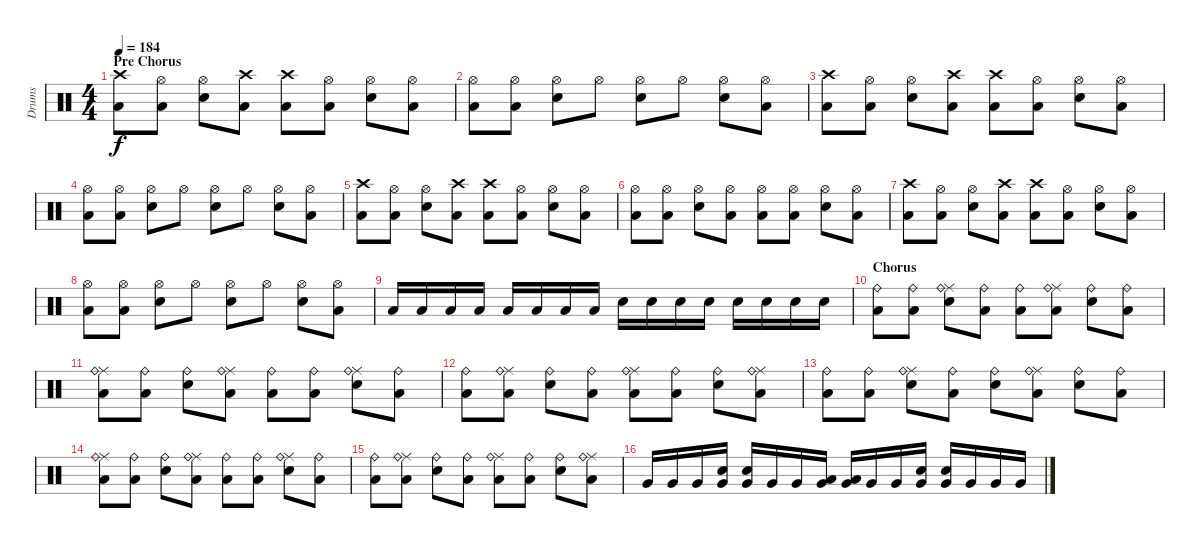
\track ("Drums" "Drums") {instrument percussion}
\staff {score}
\articulation defaults
\ts (4 4)
\section ("" "Pre Chorus")
\tempo 184
\clef neutral
\ks c
("Crash high (hit)" "Low Tom (hit)").8{dy f} ("Hi-Hat (open)" "Low Tom (hit)").8 ("Hi-Hat (open)" "Electric Snare (hit)").8 ("Crash high (hit)" "Low Tom (hit)").8 ("Crash high (hit)" "Low Tom (hit)").8 ("Hi-Hat (open)" "Low Tom (hit)").8 ("Hi-Hat (open)" "Electric Snare (hit)").8 ("Hi-Hat (open)" "Low Tom (hit)").8 |
("Hi-Hat (open)" "Low Tom (hit)").8 ("Hi-Hat (open)" "Low Tom (hit)").8 ("Hi-Hat (open)" "Electric Snare (hit)").8 "Hi-Hat (open)".8 ("Hi-Hat (open)" "Electric Snare (hit)").8 "Hi-Hat (open)".8 ("Hi-Hat (open)" "Electric Snare (hit)").8 ("Hi-Hat (open)" "Low Tom (hit)").8 |
("Crash high (hit)" "Low Tom (hit)").8 ("Hi-Hat (open)" "Low Tom (hit)").8 ("Hi-Hat (open)" "Electric Snare (hit)").8 ("Crash high (hit)" "Low Tom (hit)").8 ("Crash high (hit)" "Low Tom (hit)").8 ("Hi-Hat (open)" "Low Tom (hit)").8 ("Hi-Hat (open)" "Electric Snare (hit)").8 ("Hi-Hat (open)" "Low Tom (hit)").8 |
("Hi-Hat (open)" "Low Tom (hit)").8 ("Hi-Hat (open)" "Low Tom (hit)").8 ("Hi-Hat (open)" "Electric Snare (hit)").8 "Hi-Hat (open)".8 ("Hi-Hat (open)" "Electric Snare (hit)").8 "Hi-Hat (open)".8 ("Hi-Hat (open)" "Electric Snare (hit)").8 ("Hi-Hat (open)" "Low Tom (hit)").8 |
("Crash high (hit)" "Low Tom (hit)").8 ("Hi-Hat (open)" "Low Tom (hit)").8 ("Hi-Hat (open)" "Electric Snare (hit)").8 ("Crash high (hit)" "Low Tom (hit)").8 ("Crash high (hit)" "Low Tom (hit)").8 ("Hi-Hat (open)" "Low Tom (hit)").8 ("Hi-Hat (open)" "Electric Snare (hit)").8 ("Hi-Hat (open)" "Low Tom (hit)").8 |
("Hi-Hat (open)" "Low Tom (hit)").8 ("Hi-Hat (open)" "Low Tom (hit)").8 ("Hi-Hat (open)" "Electric Snare (hit)").8 ("Hi-Hat (open)" "Low Tom (hit)").8 ("Hi-Hat (open)" "Low Tom (hit)").8 ("Hi-Hat (open)" "Low Tom (hit)").8 ("Hi-Hat (open)" "Electric Snare (hit)").8 ("Hi-Hat (open)" "Low Tom (hit)").8 |
("Crash high (hit)" "Low Tom (hit)").8 ("Hi-Hat (open)" "Low Tom (hit)").8 ("Hi-Hat (open)" "Electric Snare (hit)").8 ("Crash high (hit)" "Low Tom (hit)").8 ("Crash high (hit)" "Low Tom (hit)").8 ("Hi-Hat (open)" "Low Tom (hit)").8 ("Hi-Hat (open)" "Electric Snare (hit)").8 ("Hi-Hat (open)" "Low Tom (hit)").8 |
("Hi-Hat (open)" "Low Tom (hit)").8 ("Hi-Hat (open)" "Low Tom (hit)").8 ("Hi-Hat (open)" "Electric Snare (hit)").8 "Hi-Hat (open)".8 ("Hi-Hat (open)" "Electric Snare (hit)").8 "Hi-Hat (open)".8 ("Hi-Hat (open)" "Electric Snare (hit)").8 ("Hi-Hat (open)" "Low Tom (hit)").8 |
"Low Tom (hit)".16 "Low Tom (hit)".16 "Low Tom (hit)".16 "Low Tom (hit)".16 "Low Tom (hit)".16 "Low Tom (hit)".16 "Low Tom (hit)".16 "Low Tom (hit)".16 "Electric Snare (hit)".16 "Electric Snare (hit)".16 "Electric Snare (hit)".16 "Electric Snare (hit)".16 "Electric Snare (hit)".16 "Electric Snare (hit)".16 "Electric Snare (hit)".16 "Electric Snare (hit)".16 |
\section ("" "Chorus")
("Ride (bell)" "Low Tom (hit)").8 ("Ride (bell)" "Low Tom (hit)").8 ("Ride (middle)" "Ride (bell)" "Electric Snare (hit)").8 ("Ride (bell)" "Low Tom (hit)").8 ("Ride (bell)" "Low Tom (hit)").8 ("Ride (middle)" "Ride (bell)" "Low Tom (hit)").8 ("Ride (bell)" "Electric Snare (hit)").8 ("Ride (bell)" "Low Tom (hit)").8 |
("Ride (middle)" "Ride (bell)" "Low Tom (hit)").8 ("Ride (bell)" "Low Tom (hit)").8 ("Ride (bell)" "Electric Snare (hit)").8 ("Ride (middle)" "Ride (bell)" "Low Tom (hit)").8 ("Ride (bell)" "Low Tom (hit)").8 ("Ride (bell)" "Low Tom (hit)").8 ("Ride (middle)" "Ride (bell)" "Electric Snare (hit)").8 ("Ride (bell)" "Low Tom (hit)").8 |
("Ride (bell)" "Low Tom (hit)").8 ("Ride (middle)" "Ride (bell)" "Low Tom (hit)").8 ("Ride (bell)" "Electric Snare (hit)").8 ("Ride (bell)" "Low Tom (hit)").8 ("Ride (middle)" "Ride (bell)" "Low Tom (hit)").8 ("Ride (bell)" "Low Tom (hit)").8 ("Ride (bell)" "Electric Snare (hit)").8 ("Ride (middle)" "Ride (bell)" "Low Tom (hit)").8 |
("Ride (bell)" "Low Tom (hit)").8 ("Ride (bell)" "Low Tom (hit)").8 ("Ride (middle)" "Ride (bell)" "Electric Snare (hit)").8 ("Ride (bell)" "Low Tom (hit)").8 ("Ride (bell)" "Electric Snare (hit)").8 ("Ride (middle)" "Ride (bell)" "Low Tom (hit)").8 ("Ride (bell)" "Electric Snare (hit)").8 ("Ride (bell)" "Low Tom (hit)").8 |
("Ride (middle)" "Ride (bell)" "Low Tom (hit)").8 ("Ride (bell)" "Low Tom (hit)").8 ("Ride (bell)" "Electric Snare (hit)").8 ("Ride (middle)" "Ride (bell)" "Low Tom (hit)").8 ("Ride (bell)" "Low Tom (hit)").8 ("Ride (bell)" "Low Tom (hit)").8 ("Ride (middle)" "Ride (bell)" "Electric Snare (hit)").8 ("Ride (bell)" "Low Tom (hit)").8 |
("Ride (bell)" "Low Tom (hit)").8 ("Ride (middle)" "Ride (bell)" "Low Tom (hit)").8 ("Ride (bell)" "Electric Snare (hit)").8 ("Ride (bell)" "Low Tom (hit)").8 ("Ride (middle)" "Ride (bell)" "Low Tom (hit)").8 ("Ride (bell)" "Low Tom (hit)").8 ("Ride (bell)" "Electric Snare (hit)").8 ("Ride (middle)" "Ride (bell)" "Low Tom (hit)").8 |
"Very Low Tom (hit)".16 "Very Low Tom (hit)".16 "Very Low Tom (hit)".16 ("Electric Snare (hit)" "Very Low Tom (hit)").16 ("Electric Snare (hit)" "Very Low Tom (hit)").16 "Very Low Tom (hit)".16 "Very Low Tom (hit)".16 ("Low Tom (hit)" "Very Low Tom (hit)").16 ("Low Tom (hit)" "Very Low Tom (hit)").16 "Very Low Tom (hit)".16 "Very Low Tom (hit)".16 ("Electric Snare (hit)" "Very Low Tom (hit)").16 ("Electric Snare (hit)" "Very Low Tom (hit)").16 "Very Low Tom (hit)".16 "Very Low Tom (hit)".16 "Very Low Tom (hit)".16
